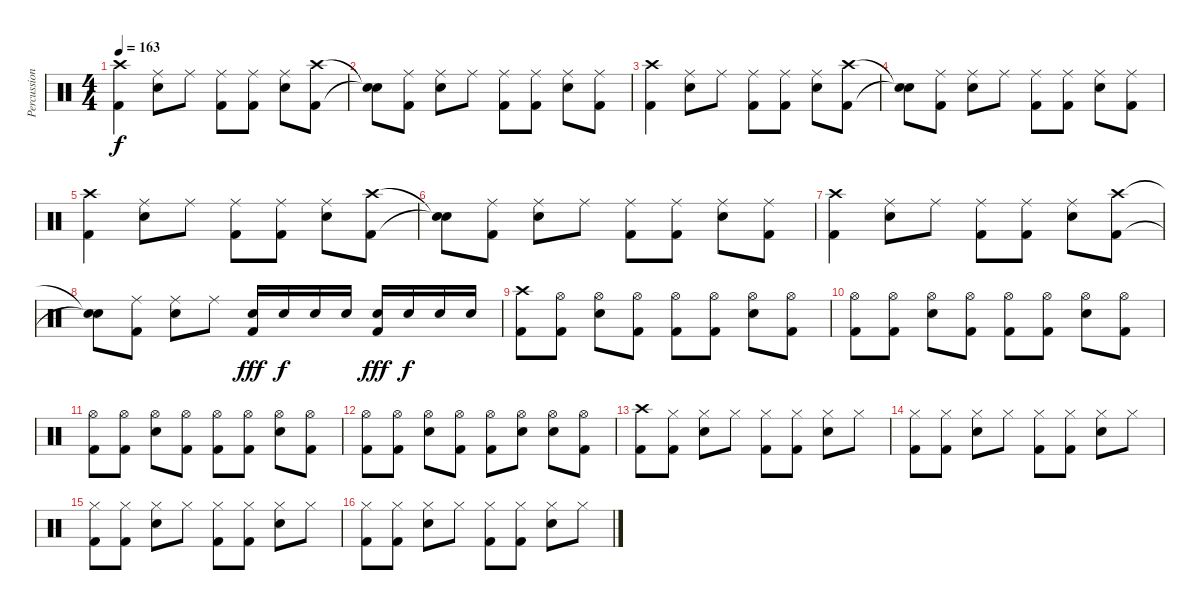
\track ("Percussion" "Percussion") {instrument percussion}
\staff {score}
\articulation defaults
\ts (4 4)
\tempo 163
\clef neutral
\ks c
("Crash high (hit)" "Kick (hit) 2").4{dy f} ("Ride (middle)" "Snare (hit) 2").8 "Ride (middle)".8 ("Ride (middle)" "Kick (hit) 2").8 ("Ride (middle)" "Kick (hit) 2").8 ("Ride (middle)" "Snare (hit) 2").8 ("Crash high (hit)" "Kick (hit) 2").8 |
("Snare (hit)"{t} "Snare (hit)"{t}).8 ("Ride (middle)" "Kick (hit) 2").8 ("Ride (middle)" "Snare (hit) 2").8 "Ride (middle)".8 ("Ride (middle)" "Kick (hit) 2").8 ("Ride (middle)" "Kick (hit) 2").8 ("Ride (middle)" "Snare (hit) 2").8 ("Ride (middle)" "Kick (hit) 2").8 |
("Crash high (hit)" "Kick (hit) 2").4 ("Ride (middle)" "Snare (hit) 2").8 "Ride (middle)".8 ("Ride (middle)" "Kick (hit) 2").8 ("Ride (middle)" "Kick (hit) 2").8 ("Ride (middle)" "Snare (hit) 2").8 ("Crash high (hit)" "Kick (hit) 2").8 |
("Snare (hit)"{t} "Snare (hit)"{t}).8 ("Ride (middle)" "Kick (hit) 2").8 ("Ride (middle)" "Snare (hit) 2").8 "Ride (middle)".8 ("Ride (middle)" "Kick (hit) 2").8 ("Ride (middle)" "Kick (hit) 2").8 ("Ride (middle)" "Snare (hit) 2").8 ("Ride (middle)" "Kick (hit) 2").8 |
("Crash high (hit)" "Kick (hit) 2").4 ("Ride (middle)" "Snare (hit) 2").8 "Ride (middle)".8 ("Ride (middle)" "Kick (hit) 2").8 ("Ride (middle)" "Kick (hit) 2").8 ("Ride (middle)" "Snare (hit) 2").8 ("Crash high (hit)" "Kick (hit) 2").8 |
("Snare (hit)"{t} "Snare (hit)"{t}).8 ("Ride (middle)" "Kick (hit) 2").8 ("Ride (middle)" "Snare (hit) 2").8 "Ride (middle)".8 ("Ride (middle)" "Kick (hit) 2").8 ("Ride (middle)" "Kick (hit) 2").8 ("Ride (middle)" "Snare (hit) 2").8 ("Ride (middle)" "Kick (hit) 2").8 |
("Crash high (hit)" "Kick (hit) 2").4 ("Ride (middle)" "Snare (hit) 2").8 "Ride (middle)".8 ("Ride (middle)" "Kick (hit) 2").8 ("Ride (middle)" "Kick (hit) 2").8 ("Ride (middle)" "Snare (hit) 2").8 ("Crash high (hit)" "Kick (hit) 2").8 |
("Snare (hit)"{t} "Snare (hit)"{t}).8 ("Ride (middle)" "Kick (hit) 2").8 ("Ride (middle)" "Snare (hit) 2").8 "Ride (middle)".8 ("Snare (hit) 2" "Kick (hit) 2").16{dy fff} "Snare (hit) 2".16{dy f} "Snare (hit) 2".16 "Snare (hit) 2".16 ("Snare (hit) 2" "Kick (hit) 2").16{dy fff} "Snare (hit) 2".16{dy f} "Snare (hit) 2".16 "Snare (hit) 2".16 |
("Crash high (hit)" "Kick (hit) 2").8 ("Hi-Hat (open)" "Kick (hit) 2").8 ("Hi-Hat (open)" "Snare (hit) 2").8 ("Hi-Hat (open)" "Kick (hit) 2").8 ("Hi-Hat (open)" "Kick (hit) 2").8 ("Hi-Hat (open)" "Kick (hit) 2").8 ("Hi-Hat (open)" "Snare (hit) 2").8 ("Hi-Hat (open)" "Kick (hit) 2").8 |
("Hi-Hat (open)" "Kick (hit) 2").8 ("Hi-Hat (open)" "Kick (hit) 2").8 ("Hi-Hat (open)" "Snare (hit) 2").8 ("Hi-Hat (open)" "Kick (hit) 2").8 ("Hi-Hat (open)" "Kick (hit) 2").8 ("Hi-Hat (open)" "Kick (hit) 2").8 ("Hi-Hat (open)" "Snare (hit) 2").8 ("Hi-Hat (open)" "Kick (hit) 2").8 |
("Hi-Hat (open)" "Kick (hit) 2").8 ("Hi-Hat (open)" "Kick (hit) 2").8 ("Hi-Hat (open)" "Snare (hit) 2").8 ("Hi-Hat (open)" "Kick (hit) 2").8 ("Hi-Hat (open)" "Kick (hit) 2").8 ("Hi-Hat (open)" "Kick (hit) 2").8 ("Hi-Hat (open)" "Snare (hit) 2").8 ("Hi-Hat (open)" "Kick (hit) 2").8 |
("Hi-Hat (open)" "Kick (hit) 2").8 ("Hi-Hat (open)" "Kick (hit) 2").8 ("Hi-Hat (open)" "Snare (hit) 2").8 ("Hi-Hat (open)" "Kick (hit) 2").8 ("Hi-Hat (open)" "Kick (hit) 2").8 ("Hi-Hat (open)" "Snare (hit) 2").8 ("Hi-Hat (open)" "Snare (hit) 2").8 ("Hi-Hat (open)" "Kick (hit) 2").8 |
("Crash high (hit)" "Kick (hit) 2").8 ("Hi-Hat (closed)" "Kick (hit) 2").8 ("Hi-Hat (closed)" "Snare (hit) 2").8 "Hi-Hat (closed)".8 ("Hi-Hat (closed)" "Kick (hit) 2").8 ("Hi-Hat (closed)" "Kick (hit) 2").8 ("Hi-Hat (closed)" "Snare (hit) 2").8 "Hi-Hat (closed)".8 |
("Hi-Hat (closed)" "Kick (hit) 2").8 ("Hi-Hat (closed)" "Kick (hit) 2").8 ("Hi-Hat (closed)" "Snare (hit) 2").8 "Hi-Hat (closed)".8 ("Hi-Hat (closed)" "Kick (hit) 2").8 ("Hi-Hat (closed)" "Kick (hit) 2").8 ("Hi-Hat (closed)" "Snare (hit) 2").8 "Hi-Hat (closed)".8 |
("Hi-Hat (closed)" "Kick (hit) 2").8 ("Hi-Hat (closed)" "Kick (hit) 2").8 ("Hi-Hat (closed)" "Snare (hit) 2").8 "Hi-Hat (closed)".8 ("Hi-Hat (closed)" "Kick (hit) 2").8 ("Hi-Hat (closed)" "Kick (hit) 2").8 ("Hi-Hat (closed)" "Snare (hit) 2").8 "Hi-Hat (closed)".8 |
("Hi-Hat (closed)" "Kick (hit) 2").8 ("Hi-Hat (closed)" "Kick (hit) 2").8 ("Hi-Hat (closed)" "Snare (hit) 2").8 "Hi-Hat (closed)".8 ("Hi-Hat (closed)" "Kick (hit) 2").8 ("Hi-Hat (closed)" "Kick (hit) 2").8 ("Hi-Hat (closed)" "Snare (hit) 2").8 "Hi-Hat (closed)".8
